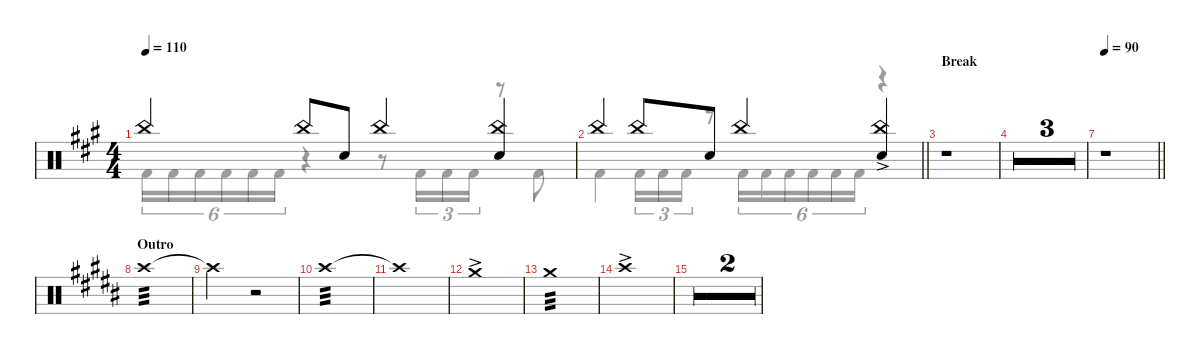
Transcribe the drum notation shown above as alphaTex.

\defaultSystemsLayout 4
\hideDynamics
\bracketExtendMode nobrackets
\singleTrackTrackNamePolicy hidden
\multiTrackTrackNamePolicy hidden
\firstSystemTrackNameMode fullname
\firstSystemTrackNameOrientation horizontal
\otherSystemsTrackNameOrientation horizontal
\track ("Drums" "Drums") {multiBarRest instrument percussion}
\staff {score}
\articulation defaults
\voice
\ts (4 4)
\tempo 110
\clef neutral
\ks a "China (hit)"{acc forcenatural}.4{dy mf} "China (hit)"{acc forcenatural}.8 "Snare (hit) 2"{acc forcenatural}.8 "China (hit)"{acc forcenatural}.4
("China (hit)"{acc forcenatural} "Snare (hit) 2"{acc forcenatural}).4 |
\barLineRight lightlight "China (hit)"{acc forcenatural}.4 "China (hit)"{acc forcenatural}.8 "Snare (hit) 2"{acc forcenatural}.8 "China (hit)"{acc forcenatural}.4
("China (hit)"{acc forcenatural} "Snare (hit) 2"{ac acc forcenatural}).4 |
\section ("" "Break")
r.1 |
r.1 |
r.1 |
r.1 |
\tempo 90
\barLineRight lightlight
r.1 |
\section ("" "Outro")
\ks b "Crash high (hit)"{acc forcenatural}.1{tp 3}
|
"Crash high (hit)"{t acc forcenatural}.2 r.2 |
"Crash high (hit)"{acc forcenatural}.1{tp 3} |
"Crash high (hit)"{t acc forcenatural}.1 |
"Crash medium (hit)"{ac acc forcenatural}.1 |
"Crash medium (hit)"{acc forcenatural}.1{tp 3} |
"Crash high (hit)"{ac acc forcenatural}.1 |
r.1 |
r.1
\voice
\clef neutral
\ottava regular
\simile none
\ks a "Kick (hit) 2"{acc forcenatural}.16{tu (6 4) dy mf} "Kick (hit) 2"{acc forcenatural}.16{tu (6 4)} "Kick (hit) 2"{acc forcenatural}.16{tu (6 4)} "Kick (hit) 2"{acc forcenatural}.16{tu (6 4)} "Kick (hit) 2"{acc forcenatural}.16{tu (6 4)} "Kick (hit) 2"{acc forcenatural}.16{tu (6 4)}
r.4 r.8 "Kick (hit) 2"{acc forcenatural}.16{tu (3 2)} "Kick (hit) 2"{acc forcenatural}.16{tu (3 2)} "Kick (hit) 2"{acc forcenatural}.16{tu (3 2)} r.8 "Kick (hit) 2"{acc forcenatural}.8 |
\barLineRight lightlight "Kick (hit) 2"{acc forcenatural}.4 "Kick (hit) 2"{acc forcenatural}.16{tu (3 2)} "Kick (hit) 2"{acc forcenatural}.16{tu (3 2)} "Kick (hit) 2"{acc forcenatural}.16{tu (3 2)}
r.8 "Kick (hit) 2"{acc forcenatural}.16{tu (6 4)} "Kick (hit) 2"{acc forcenatural}.16{tu (6 4)} "Kick (hit) 2"{acc forcenatural}.16{tu (6 4)} "Kick (hit) 2"{acc forcenatural}.16{tu (6 4)} "Kick (hit) 2"{acc forcenatural}.16{tu (6 4)} "Kick (hit) 2"{acc forcenatural}.16{tu (6 4)} r.4 |
|
|
|
|
\barLineRight lightlight
|
\ks b
|
|
|
|
|
|
|
|
